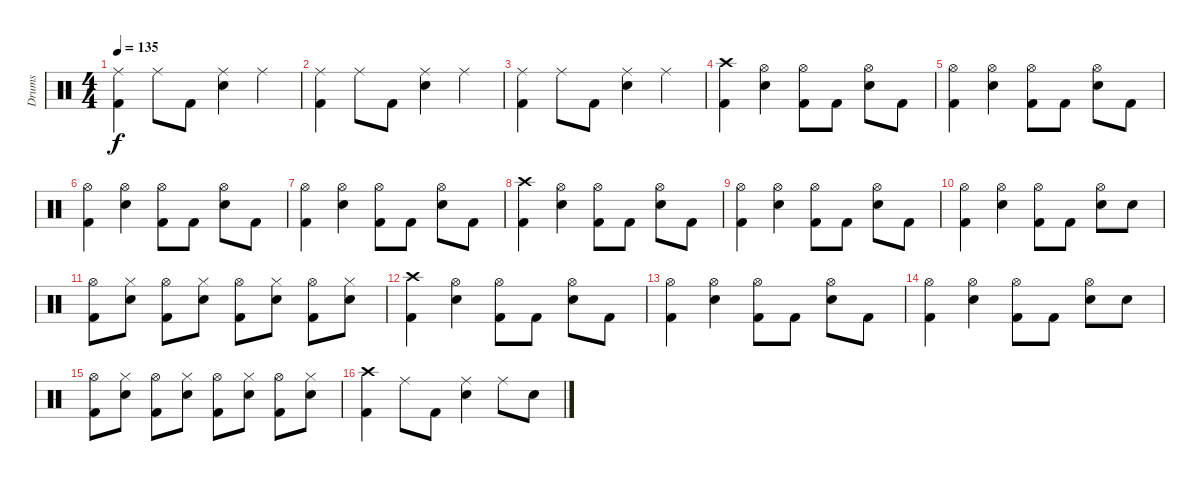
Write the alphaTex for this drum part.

\track ("Drums" "Drums") {instrument percussion}
\staff {score}
\articulation defaults
\ts (4 4)
\tempo 135
\clef neutral
\ks c
("Ride (middle)" "Kick (hit) 2").4{dy f} "Ride (middle)".8 "Kick (hit) 2".8 ("Ride (middle)" "Electric Snare (hit)").4 "Ride (middle)".4 |
("Ride (middle)" "Kick (hit) 2").4 "Ride (middle)".8 "Kick (hit) 2".8 ("Ride (middle)" "Electric Snare (hit)").4 "Ride (middle)".4 |
("Ride (middle)" "Kick (hit) 2").4 "Ride (middle)".8 "Kick (hit) 2".8 ("Ride (middle)" "Electric Snare (hit)").4 "Ride (middle)".4 |
("Crash high (hit)" "Kick (hit) 2").4 ("Hi-Hat (open)" "Electric Snare (hit)").4 ("Hi-Hat (open)" "Kick (hit) 2").8 "Kick (hit) 2".8 ("Hi-Hat (open)" "Electric Snare (hit)").8 "Kick (hit) 2".8 |
("Hi-Hat (open)" "Kick (hit) 2").4 ("Hi-Hat (open)" "Electric Snare (hit)").4 ("Hi-Hat (open)" "Kick (hit) 2").8 "Kick (hit) 2".8 ("Hi-Hat (open)" "Electric Snare (hit)").8 "Kick (hit) 2".8 |
("Hi-Hat (open)" "Kick (hit) 2").4 ("Hi-Hat (open)" "Electric Snare (hit)").4 ("Hi-Hat (open)" "Kick (hit) 2").8 "Kick (hit) 2".8 ("Hi-Hat (open)" "Electric Snare (hit)").8 "Kick (hit) 2".8 |
("Hi-Hat (open)" "Kick (hit) 2").4 ("Hi-Hat (open)" "Electric Snare (hit)").4 ("Hi-Hat (open)" "Kick (hit) 2").8 "Kick (hit) 2".8 ("Hi-Hat (open)" "Electric Snare (hit)").8 "Kick (hit) 2".8 |
("Crash high (hit)" "Kick (hit) 2").4 ("Hi-Hat (open)" "Electric Snare (hit)").4 ("Hi-Hat (open)" "Kick (hit) 2").8 "Kick (hit) 2".8 ("Hi-Hat (open)" "Electric Snare (hit)").8 "Kick (hit) 2".8 |
("Hi-Hat (open)" "Kick (hit) 2").4 ("Hi-Hat (open)" "Electric Snare (hit)").4 ("Hi-Hat (open)" "Kick (hit) 2").8 "Kick (hit) 2".8 ("Hi-Hat (open)" "Electric Snare (hit)").8 "Kick (hit) 2".8 |
("Hi-Hat (open)" "Kick (hit) 2").4 ("Hi-Hat (open)" "Electric Snare (hit)").4 ("Hi-Hat (open)" "Kick (hit) 2").8 "Kick (hit) 2".8 ("Hi-Hat (open)" "Electric Snare (hit)").8 "Electric Snare (hit)".8 |
("Hi-Hat (open)" "Kick (hit) 2").8 ("Hi-Hat (closed)" "Electric Snare (hit)").8 ("Hi-Hat (open)" "Kick (hit) 2").8 ("Hi-Hat (closed)" "Electric Snare (hit)").8 ("Hi-Hat (open)" "Kick (hit) 2").8 ("Hi-Hat (closed)" "Electric Snare (hit)").8 ("Hi-Hat (open)" "Kick (hit) 2").8 ("Hi-Hat (closed)" "Electric Snare (hit)").8 |
("Crash high (hit)" "Kick (hit) 2").4 ("Hi-Hat (open)" "Electric Snare (hit)").4 ("Hi-Hat (open)" "Kick (hit) 2").8 "Kick (hit) 2".8 ("Hi-Hat (open)" "Electric Snare (hit)").8 "Kick (hit) 2".8 |
("Hi-Hat (open)" "Kick (hit) 2").4 ("Hi-Hat (open)" "Electric Snare (hit)").4 ("Hi-Hat (open)" "Kick (hit) 2").8 "Kick (hit) 2".8 ("Hi-Hat (open)" "Electric Snare (hit)").8 "Kick (hit) 2".8 |
("Hi-Hat (open)" "Kick (hit) 2").4 ("Hi-Hat (open)" "Electric Snare (hit)").4 ("Hi-Hat (open)" "Kick (hit) 2").8 "Kick (hit) 2".8 ("Hi-Hat (open)" "Electric Snare (hit)").8 "Electric Snare (hit)".8 |
("Hi-Hat (open)" "Kick (hit) 2").8 ("Hi-Hat (closed)" "Electric Snare (hit)").8 ("Hi-Hat (open)" "Kick (hit) 2").8 ("Hi-Hat (closed)" "Electric Snare (hit)").8 ("Hi-Hat (open)" "Kick (hit) 2").8 ("Hi-Hat (closed)" "Electric Snare (hit)").8 ("Hi-Hat (open)" "Kick (hit) 2").8 ("Hi-Hat (closed)" "Electric Snare (hit)").8 |
("Crash high (hit)" "Kick (hit) 2").4 "Ride (middle)".8 "Kick (hit) 2".8 ("Ride (middle)" "Electric Snare (hit)").4 "Ride (middle)".8 "Electric Snare (hit)".8
